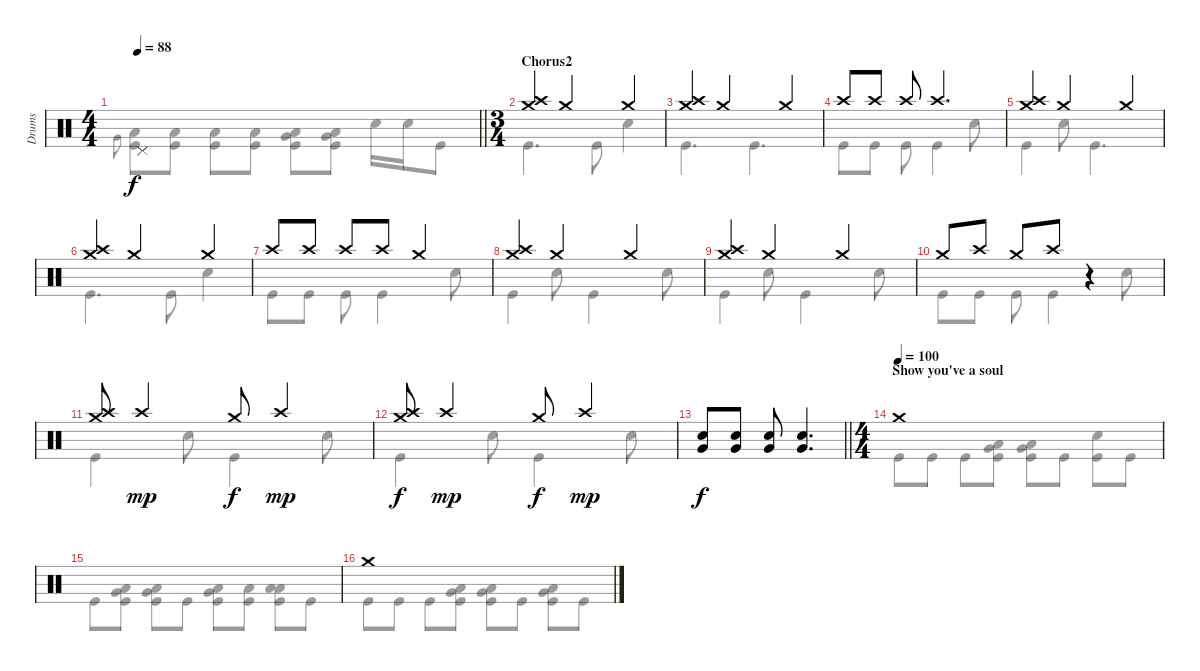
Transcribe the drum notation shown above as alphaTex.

\track ("Drums" "Drums") {instrument percussion}
\staff {score}
\articulation defaults
\voice
\ts (4 4)
\tempo 88
\clef neutral
\barLineRight lightlight
\ks c "Pedal Hi-Hat (hit)".1{dy f}
|
\ts (3 4)
\section ("" "Chorus2")
("Crash medium (hit)" "Crash high (hit)").4 "Crash medium (hit)".4 "Crash medium (hit)".4 |
("Crash medium (hit)" "Crash high (hit)").4 "Crash medium (hit)".4 "Crash medium (hit)".4 |
"Crash high (hit)".8 "Crash high (hit)".8 "Crash high (hit)".8 "Crash high (hit)".4{d} |
("Crash medium (hit)" "Crash high (hit)").4 "Crash medium (hit)".4 "Crash medium (hit)".4 |
("Crash medium (hit)" "Crash high (hit)").4 "Crash medium (hit)".4 "Crash medium (hit)".4 |
"Crash high (hit)".8 "Crash high (hit)".8 "Crash high (hit)".8 "Crash high (hit)".8 "Crash medium (hit)".4 |
("Crash medium (hit)" "Crash high (hit)").4 "Crash medium (hit)".4 "Crash medium (hit)".4 |
("Crash medium (hit)" "Crash high (hit)").4 "Crash medium (hit)".4 "Crash medium (hit)".4 |
"Crash medium (hit)".8 "Crash high (hit)".8 "Crash medium (hit)".8 "Crash high (hit)".8 r.4 |
("Crash medium (hit)" "Crash high (hit)").8 "Crash high (hit)".4{dy mp} "Crash medium (hit)".8{dy f} "Crash high (hit)".4{dy mp} |
("Crash medium (hit)" "Crash high (hit)").8{dy f} "Crash high (hit)".4{dy mp} "Crash medium (hit)".8{dy f} "Crash high (hit)".4{dy mp} |
\barLineRight lightlight
("Snare (hit) 2" "Very Low Tom (hit)").8{dy f} ("Snare (hit) 2" "Very Low Tom (hit)").8 ("Snare (hit) 2" "Very Low Tom (hit)").8 ("Snare (hit) 2" "Very Low Tom (hit)").4{d} |
\ts (4 4)
\section ("" "Show you've a soul")
\tempo (100)
"Crash medium (hit)".1 |
|
"Crash medium (hit)".1
\voice
\clef neutral
\ottava regular
\simile none
\barLineRight lightlight
\ks c "Very Low Tom (hit)".8{gr onbeat dy f}
("Low Floor Tom (hit)" "Kick (hit)").8 ("Low Floor Tom (hit)" "Kick (hit)").8 ("Low Floor Tom (hit)" "Kick (hit)").8 ("Low Floor Tom (hit)" "Kick (hit)").8 ("Very Low Tom (hit)" "Low Floor Tom (hit)" "Kick (hit)").8 ("Very Low Tom (hit)" "Low Floor Tom (hit)" "Kick (hit)").8 "Snare (hit) 2".16 "Snare (hit) 2".16 "Kick (hit)".8 |
"Kick (hit)".4{d} "Kick (hit)".8 "Snare (hit) 2".4 |
"Kick (hit)".4{d} "Kick (hit)".4{d} |
"Kick (hit)".8 "Kick (hit)".8 "Kick (hit)".8 "Kick (hit)".4 "Snare (hit) 2".8 |
"Kick (hit)".4 "Snare (hit) 2".8 "Kick (hit)".4{d} |
"Kick (hit)".4{d} "Kick (hit)".8 "Snare (hit) 2".4 |
"Kick (hit)".8 "Kick (hit)".8 "Kick (hit)".8 "Kick (hit)".4 "Snare (hit) 2".8 |
"Kick (hit)".4 "Snare (hit) 2".8 "Kick (hit)".4 "Snare (hit) 2".8 |
"Kick (hit)".4 "Snare (hit) 2".8 "Kick (hit)".4 "Snare (hit) 2".8 |
"Kick (hit)".8 "Kick (hit)".8 "Kick (hit)".8 "Kick (hit)".4 "Snare (hit) 2".8 |
"Kick (hit)".4 "Snare (hit) 2".8 "Kick (hit)".4 "Snare (hit) 2".8 |
"Kick (hit)".4 "Snare (hit) 2".8 "Kick (hit)".4 "Snare (hit) 2".8 |
\barLineRight lightlight
|
"Kick (hit)".8 "Kick (hit)".8 "Kick (hit)".8 ("Low Tom (hit)" "Very Low Tom (hit)" "Kick (hit)").8 ("Low Tom (hit)" "Very Low Tom (hit)" "Kick (hit)").8 "Kick (hit)".8 ("Snare (hit) 2" "Kick (hit)").8 "Kick (hit)".8 |
"Kick (hit)".8 ("Low Tom (hit)" "Very Low Tom (hit)" "Kick (hit)").8 ("Low Tom (hit)" "Very Low Tom (hit)" "Kick (hit)").8 "Kick (hit)".8 ("Low Tom (hit)" "Very Low Tom (hit)" "Kick (hit)").8 ("Low Tom (hit)" "Kick (hit)").8 ("Low Tom (hit)" "Low Floor Tom (hit)" "Kick (hit)").8 "Kick (hit)".8 |
"Kick (hit)".8 "Kick (hit)".8 "Kick (hit)".8 ("Low Tom (hit)" "Very Low Tom (hit)" "Kick (hit)").8 ("Low Tom (hit)" "Very Low Tom (hit)" "Kick (hit)").8 "Kick (hit)".8 ("Low Tom (hit)" "Very Low Tom (hit)" "Kick (hit)").8 "Kick (hit)".8
